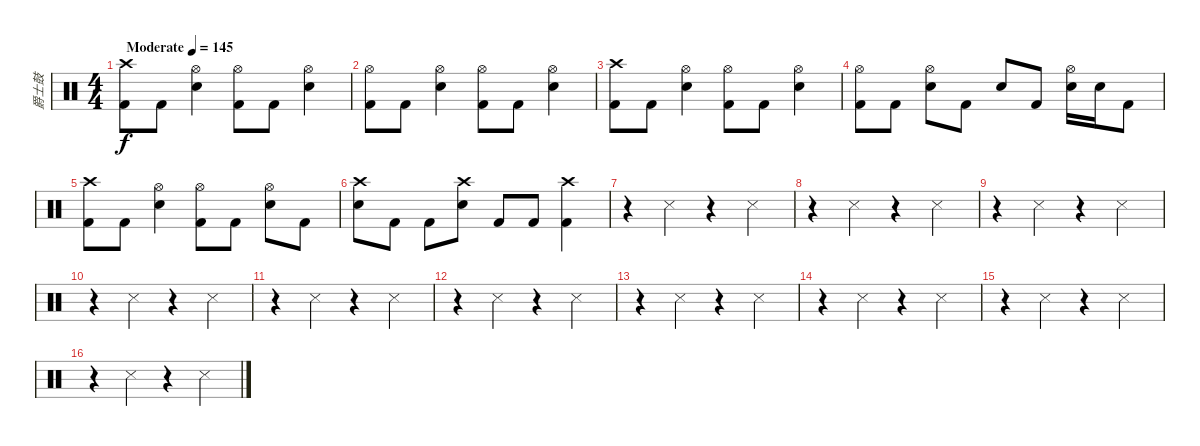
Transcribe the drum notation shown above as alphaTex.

\track ("爵士鼓" "爵士鼓") {instrument percussion}
\staff {score}
\articulation defaults
\ts (4 4)
\tempo (145 "Moderate")
\clef neutral
\ks c
("Crash high (hit)" "Kick (hit) 2").8{dy f} "Kick (hit) 2".8 ("Hi-Hat (open)" "Electric Snare (hit)").4 ("Hi-Hat (open)" "Kick (hit) 2").8 "Kick (hit) 2".8 ("Hi-Hat (open)" "Electric Snare (hit)").4 |
("Hi-Hat (open)" "Kick (hit) 2").8 "Kick (hit) 2".8 ("Hi-Hat (open)" "Electric Snare (hit)").4 ("Hi-Hat (open)" "Kick (hit) 2").8 "Kick (hit) 2".8 ("Hi-Hat (open)" "Electric Snare (hit)").4 |
("Crash high (hit)" "Kick (hit) 2").8 "Kick (hit) 2".8 ("Hi-Hat (open)" "Electric Snare (hit)").4 ("Hi-Hat (open)" "Kick (hit) 2").8 "Kick (hit) 2".8 ("Hi-Hat (open)" "Electric Snare (hit)").4 |
("Hi-Hat (open)" "Kick (hit) 2").8 "Kick (hit) 2".8 ("Hi-Hat (open)" "Electric Snare (hit)").8 "Kick (hit) 2".8 "Electric Snare (hit)".8 "Kick (hit) 2".8 ("Hi-Hat (open)" "Electric Snare (hit)").16 "Electric Snare (hit)".16 "Kick (hit) 2".8 |
("Crash high (hit)" "Kick (hit) 2").8 "Kick (hit) 2".8 ("Hi-Hat (open)" "Electric Snare (hit)").4 ("Hi-Hat (open)" "Kick (hit) 2").8 "Kick (hit) 2".8 ("Hi-Hat (open)" "Electric Snare (hit)").8 "Kick (hit) 2".8 |
("Crash high (hit)" "Electric Snare (hit)").8 "Kick (hit) 2".8 "Kick (hit) 2".8 ("Crash high (hit)" "Electric Snare (hit)").8 "Kick (hit) 2".8 "Kick (hit) 2".8 ("Crash high (hit)" "Kick (hit) 2").4 |
r.4 "Snare (side stick) 3".4 r.4 "Snare (side stick) 3".4 |
r.4 "Snare (side stick) 3".4 r.4 "Snare (side stick) 3".4 |
r.4 "Snare (side stick) 3".4 r.4 "Snare (side stick) 3".4 |
r.4 "Snare (side stick) 3".4 r.4 "Snare (side stick) 3".4 |
r.4 "Snare (side stick) 3".4 r.4 "Snare (side stick) 3".4 |
r.4 "Snare (side stick) 3".4 r.4 "Snare (side stick) 3".4 |
r.4 "Snare (side stick) 3".4 r.4 "Snare (side stick) 3".4 |
r.4 "Snare (side stick) 3".4 r.4 "Snare (side stick) 3".4 |
r.4 "Snare (side stick) 3".4 r.4 "Snare (side stick) 3".4 |
r.4 "Snare (side stick) 3".4 r.4 "Snare (side stick) 3".4
